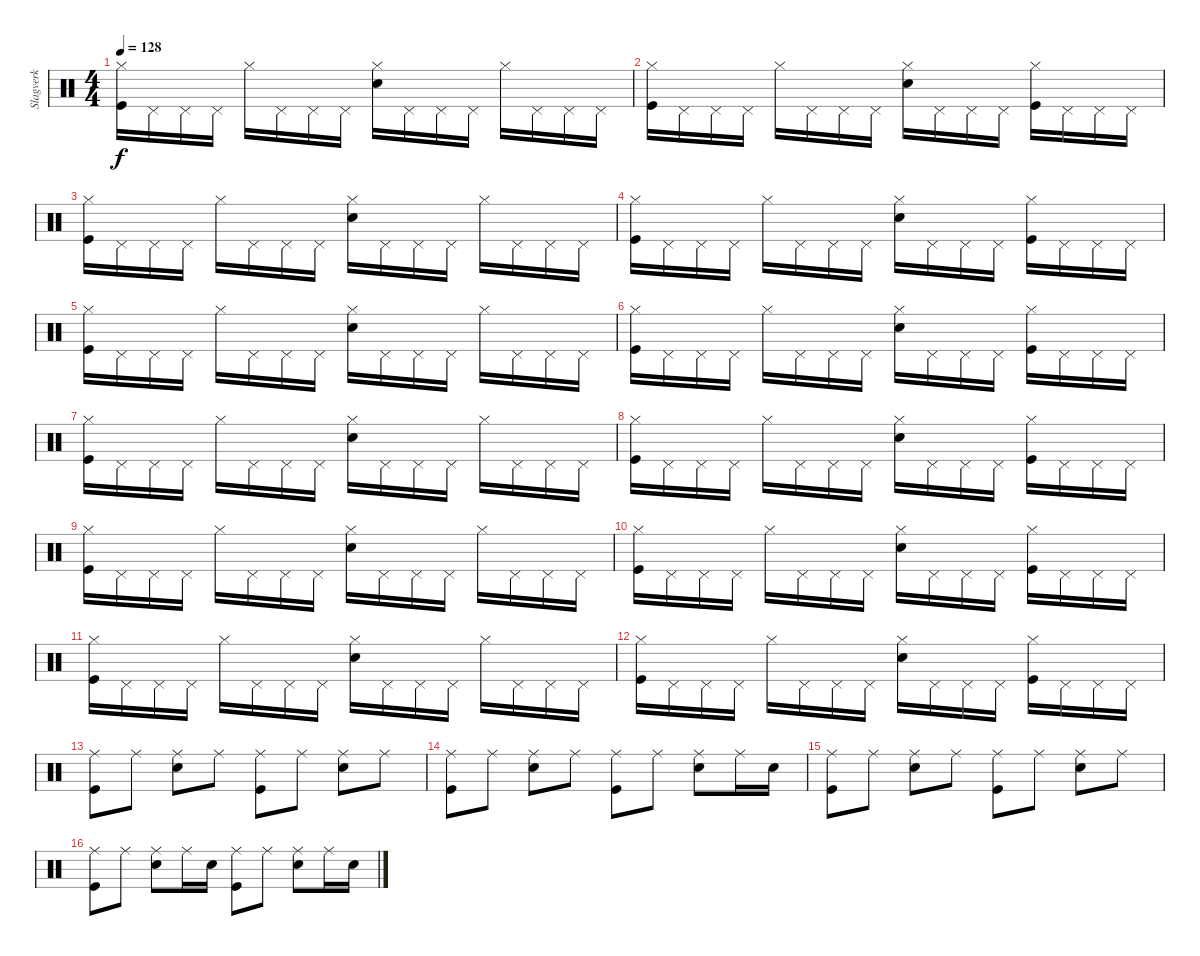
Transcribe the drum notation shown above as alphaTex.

\track ("Slagverk" "Slagverk") {instrument percussion}
\staff {score}
\articulation defaults
\ts (4 4)
\tempo 128
\clef neutral
\ks c
("Kick (hit)" "Hi-Hat (closed)").16{dy f} "Pedal Hi-Hat (hit)".16 "Pedal Hi-Hat (hit)".16 "Pedal Hi-Hat (hit)".16 "Hi-Hat (closed)".16 "Pedal Hi-Hat (hit)".16 "Pedal Hi-Hat (hit)".16 "Pedal Hi-Hat (hit)".16 ("Snare (hit) 2" "Hi-Hat (closed)").16 "Pedal Hi-Hat (hit)".16 "Pedal Hi-Hat (hit)".16 "Pedal Hi-Hat (hit)".16 "Hi-Hat (closed)".16 "Pedal Hi-Hat (hit)".16 "Pedal Hi-Hat (hit)".16 "Pedal Hi-Hat (hit)".16 |
("Kick (hit)" "Hi-Hat (closed)").16 "Pedal Hi-Hat (hit)".16 "Pedal Hi-Hat (hit)".16 "Pedal Hi-Hat (hit)".16 "Hi-Hat (closed)".16 "Pedal Hi-Hat (hit)".16 "Pedal Hi-Hat (hit)".16 "Pedal Hi-Hat (hit)".16 ("Snare (hit) 2" "Hi-Hat (closed)").16 "Pedal Hi-Hat (hit)".16 "Pedal Hi-Hat (hit)".16 "Pedal Hi-Hat (hit)".16 ("Kick (hit)" "Hi-Hat (closed)").16 "Pedal Hi-Hat (hit)".16 "Pedal Hi-Hat (hit)".16 "Pedal Hi-Hat (hit)".16 |
("Kick (hit)" "Hi-Hat (closed)").16 "Pedal Hi-Hat (hit)".16 "Pedal Hi-Hat (hit)".16 "Pedal Hi-Hat (hit)".16 "Hi-Hat (closed)".16 "Pedal Hi-Hat (hit)".16 "Pedal Hi-Hat (hit)".16 "Pedal Hi-Hat (hit)".16 ("Snare (hit) 2" "Hi-Hat (closed)").16 "Pedal Hi-Hat (hit)".16 "Pedal Hi-Hat (hit)".16 "Pedal Hi-Hat (hit)".16 "Hi-Hat (closed)".16 "Pedal Hi-Hat (hit)".16 "Pedal Hi-Hat (hit)".16 "Pedal Hi-Hat (hit)".16 |
("Kick (hit)" "Hi-Hat (closed)").16 "Pedal Hi-Hat (hit)".16 "Pedal Hi-Hat (hit)".16 "Pedal Hi-Hat (hit)".16 "Hi-Hat (closed)".16 "Pedal Hi-Hat (hit)".16 "Pedal Hi-Hat (hit)".16 "Pedal Hi-Hat (hit)".16 ("Snare (hit) 2" "Hi-Hat (closed)").16 "Pedal Hi-Hat (hit)".16 "Pedal Hi-Hat (hit)".16 "Pedal Hi-Hat (hit)".16 ("Kick (hit)" "Hi-Hat (closed)").16 "Pedal Hi-Hat (hit)".16 "Pedal Hi-Hat (hit)".16 "Pedal Hi-Hat (hit)".16 |
("Kick (hit)" "Hi-Hat (closed)").16 "Pedal Hi-Hat (hit)".16 "Pedal Hi-Hat (hit)".16 "Pedal Hi-Hat (hit)".16 "Hi-Hat (closed)".16 "Pedal Hi-Hat (hit)".16 "Pedal Hi-Hat (hit)".16 "Pedal Hi-Hat (hit)".16 ("Snare (hit) 2" "Hi-Hat (closed)").16 "Pedal Hi-Hat (hit)".16 "Pedal Hi-Hat (hit)".16 "Pedal Hi-Hat (hit)".16 "Hi-Hat (closed)".16 "Pedal Hi-Hat (hit)".16 "Pedal Hi-Hat (hit)".16 "Pedal Hi-Hat (hit)".16 |
("Kick (hit)" "Hi-Hat (closed)").16 "Pedal Hi-Hat (hit)".16 "Pedal Hi-Hat (hit)".16 "Pedal Hi-Hat (hit)".16 "Hi-Hat (closed)".16 "Pedal Hi-Hat (hit)".16 "Pedal Hi-Hat (hit)".16 "Pedal Hi-Hat (hit)".16 ("Snare (hit) 2" "Hi-Hat (closed)").16 "Pedal Hi-Hat (hit)".16 "Pedal Hi-Hat (hit)".16 "Pedal Hi-Hat (hit)".16 ("Kick (hit)" "Hi-Hat (closed)").16 "Pedal Hi-Hat (hit)".16 "Pedal Hi-Hat (hit)".16 "Pedal Hi-Hat (hit)".16 |
("Kick (hit)" "Hi-Hat (closed)").16 "Pedal Hi-Hat (hit)".16 "Pedal Hi-Hat (hit)".16 "Pedal Hi-Hat (hit)".16 "Hi-Hat (closed)".16 "Pedal Hi-Hat (hit)".16 "Pedal Hi-Hat (hit)".16 "Pedal Hi-Hat (hit)".16 ("Snare (hit) 2" "Hi-Hat (closed)").16 "Pedal Hi-Hat (hit)".16 "Pedal Hi-Hat (hit)".16 "Pedal Hi-Hat (hit)".16 "Hi-Hat (closed)".16 "Pedal Hi-Hat (hit)".16 "Pedal Hi-Hat (hit)".16 "Pedal Hi-Hat (hit)".16 |
("Kick (hit)" "Hi-Hat (closed)").16 "Pedal Hi-Hat (hit)".16 "Pedal Hi-Hat (hit)".16 "Pedal Hi-Hat (hit)".16 "Hi-Hat (closed)".16 "Pedal Hi-Hat (hit)".16 "Pedal Hi-Hat (hit)".16 "Pedal Hi-Hat (hit)".16 ("Snare (hit) 2" "Hi-Hat (closed)").16 "Pedal Hi-Hat (hit)".16 "Pedal Hi-Hat (hit)".16 "Pedal Hi-Hat (hit)".16 ("Kick (hit)" "Hi-Hat (closed)").16 "Pedal Hi-Hat (hit)".16 "Pedal Hi-Hat (hit)".16 "Pedal Hi-Hat (hit)".16 |
("Kick (hit)" "Hi-Hat (closed)").16 "Pedal Hi-Hat (hit)".16 "Pedal Hi-Hat (hit)".16 "Pedal Hi-Hat (hit)".16 "Hi-Hat (closed)".16 "Pedal Hi-Hat (hit)".16 "Pedal Hi-Hat (hit)".16 "Pedal Hi-Hat (hit)".16 ("Snare (hit) 2" "Hi-Hat (closed)").16 "Pedal Hi-Hat (hit)".16 "Pedal Hi-Hat (hit)".16 "Pedal Hi-Hat (hit)".16 "Hi-Hat (closed)".16 "Pedal Hi-Hat (hit)".16 "Pedal Hi-Hat (hit)".16 "Pedal Hi-Hat (hit)".16 |
("Kick (hit)" "Hi-Hat (closed)").16 "Pedal Hi-Hat (hit)".16 "Pedal Hi-Hat (hit)".16 "Pedal Hi-Hat (hit)".16 "Hi-Hat (closed)".16 "Pedal Hi-Hat (hit)".16 "Pedal Hi-Hat (hit)".16 "Pedal Hi-Hat (hit)".16 ("Snare (hit) 2" "Hi-Hat (closed)").16 "Pedal Hi-Hat (hit)".16 "Pedal Hi-Hat (hit)".16 "Pedal Hi-Hat (hit)".16 ("Kick (hit)" "Hi-Hat (closed)").16 "Pedal Hi-Hat (hit)".16 "Pedal Hi-Hat (hit)".16 "Pedal Hi-Hat (hit)".16 |
("Kick (hit)" "Hi-Hat (closed)").16 "Pedal Hi-Hat (hit)".16 "Pedal Hi-Hat (hit)".16 "Pedal Hi-Hat (hit)".16 "Hi-Hat (closed)".16 "Pedal Hi-Hat (hit)".16 "Pedal Hi-Hat (hit)".16 "Pedal Hi-Hat (hit)".16 ("Snare (hit) 2" "Hi-Hat (closed)").16 "Pedal Hi-Hat (hit)".16 "Pedal Hi-Hat (hit)".16 "Pedal Hi-Hat (hit)".16 "Hi-Hat (closed)".16 "Pedal Hi-Hat (hit)".16 "Pedal Hi-Hat (hit)".16 "Pedal Hi-Hat (hit)".16 |
("Kick (hit)" "Hi-Hat (closed)").16 "Pedal Hi-Hat (hit)".16 "Pedal Hi-Hat (hit)".16 "Pedal Hi-Hat (hit)".16 "Hi-Hat (closed)".16 "Pedal Hi-Hat (hit)".16 "Pedal Hi-Hat (hit)".16 "Pedal Hi-Hat (hit)".16 ("Snare (hit) 2" "Hi-Hat (closed)").16 "Pedal Hi-Hat (hit)".16 "Pedal Hi-Hat (hit)".16 "Pedal Hi-Hat (hit)".16 ("Kick (hit)" "Hi-Hat (closed)").16 "Pedal Hi-Hat (hit)".16 "Pedal Hi-Hat (hit)".16 "Pedal Hi-Hat (hit)".16 |
("Kick (hit)" "Ride (middle)").8 "Ride (middle)".8 ("Snare (hit) 2" "Ride (middle)").8 "Ride (middle)".8 ("Kick (hit)" "Ride (middle)").8 "Ride (middle)".8 ("Snare (hit) 2" "Ride (middle)").8 "Ride (middle)".8 |
("Kick (hit)" "Ride (middle)").8 "Ride (middle)".8 ("Snare (hit) 2" "Ride (middle)").8 "Ride (middle)".8 ("Kick (hit)" "Ride (middle)").8 "Ride (middle)".8 ("Snare (hit) 2" "Ride (middle)").8 "Ride (middle)".16 "Snare (hit) 2".16 |
("Kick (hit)" "Ride (middle)").8 "Ride (middle)".8 ("Snare (hit) 2" "Ride (middle)").8 "Ride (middle)".8 ("Kick (hit)" "Ride (middle)").8 "Ride (middle)".8 ("Snare (hit) 2" "Ride (middle)").8 "Ride (middle)".8 |
("Kick (hit)" "Ride (middle)").8 "Ride (middle)".8 ("Snare (hit) 2" "Ride (middle)").8 "Ride (middle)".16 "Snare (hit) 2".16 ("Kick (hit)" "Ride (middle)").8 "Ride (middle)".8 ("Snare (hit) 2" "Ride (middle)").8 "Ride (middle)".16 "Snare (hit) 2".16
